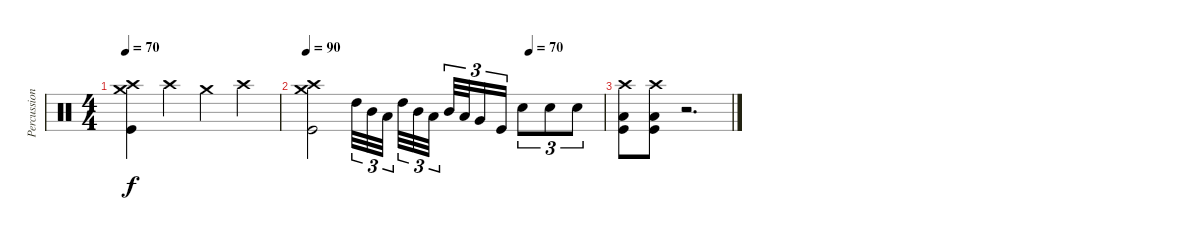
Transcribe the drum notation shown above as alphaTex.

\track ("Percussion" "Percussion") {instrument percussion}
\staff {score}
\articulation defaults
\ts (4 4)
\tempo 70
\clef neutral
\ks c
("Crash medium (hit)" "Crash high (hit)" "Kick (hit)").4{dy f} "Crash high (hit)".4 "Crash medium (hit)".4 "Crash high (hit)".4 |
\tempo 90
\tempo (70 0.75)
("Crash medium (hit)" "Crash high (hit)" "Kick (hit)").2 "High Tom (hit)".32{tu (3 2)} "Mid Tom (hit)".32{tu (3 2)} "Low Tom (hit)".32{tu (3 2)} "High Tom (hit)".32{tu (3 2)} "Mid Tom (hit)".32{tu (3 2)} "Low Tom (hit)".32{tu (3 2)} "Mid Tom (hit)".32{tu (3 2)} "Low Tom (hit)".32{tu (3 2)} "Very Low Tom (hit)".16{tu (3 2)} "Kick (hit)".16{tu (3 2)} "Electric Snare (hit)".8{tu (3 2)} "Electric Snare (hit)".8{tu (3 2)} "Electric Snare (hit)".8{tu (3 2)} |
("Crash high (hit)" "Low Floor Tom (hit)" "Kick (hit)").8 ("Crash high (hit)" "Low Floor Tom (hit)" "Kick (hit)").8 r.2{d}
